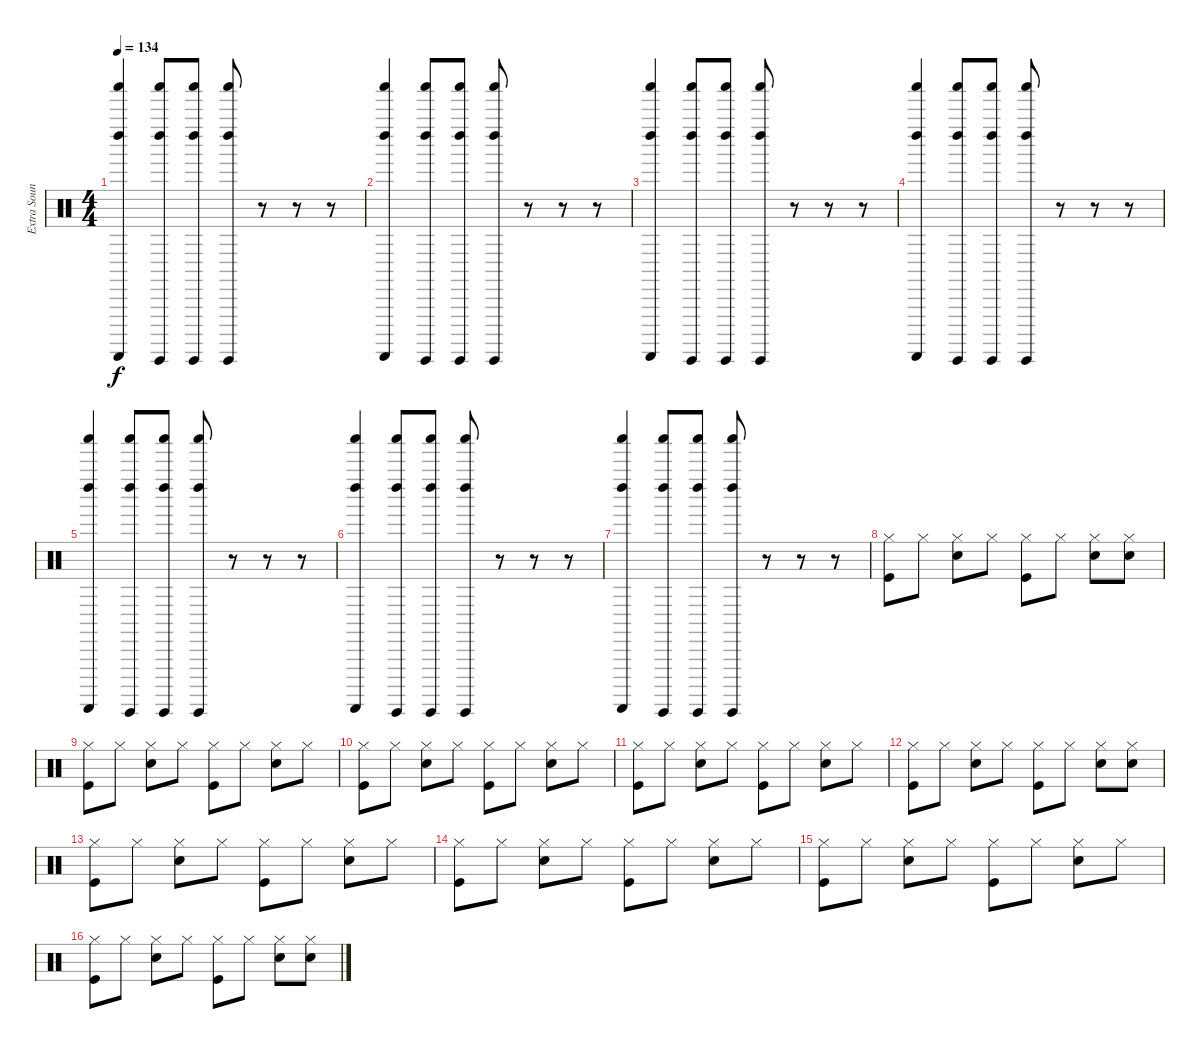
\track ("Extra Sounds" "Extra Soun") {instrument percussion}
\staff {score}
\articulation defaults
\ts (4 4)
\tempo 134
\clef neutral
\ks c
("Shaker (hit)" "Left Maraca (hit)" "Guiro (scrap-return)").4{dy f} ("Shaker (hit)" "Left Maraca (hit)" "Guiro (hit)").8 ("Shaker (hit)" "Left Maraca (hit)" "Guiro (hit)").8 ("Shaker (hit)" "Left Maraca (hit)" "Guiro (hit)").8 r.8 r.8 r.8 |
("Shaker (hit)" "Left Maraca (hit)" "Guiro (scrap-return)").4 ("Shaker (hit)" "Left Maraca (hit)" "Guiro (hit)").8 ("Shaker (hit)" "Left Maraca (hit)" "Guiro (hit)").8 ("Shaker (hit)" "Left Maraca (hit)" "Guiro (hit)").8 r.8 r.8 r.8 |
("Shaker (hit)" "Left Maraca (hit)" "Guiro (scrap-return)").4 ("Shaker (hit)" "Left Maraca (hit)" "Guiro (hit)").8 ("Shaker (hit)" "Left Maraca (hit)" "Guiro (hit)").8 ("Shaker (hit)" "Left Maraca (hit)" "Guiro (hit)").8 r.8 r.8 r.8 |
("Shaker (hit)" "Left Maraca (hit)" "Guiro (scrap-return)").4 ("Shaker (hit)" "Left Maraca (hit)" "Guiro (hit)").8 ("Shaker (hit)" "Left Maraca (hit)" "Guiro (hit)").8 ("Shaker (hit)" "Left Maraca (hit)" "Guiro (hit)").8 r.8 r.8 r.8 |
("Shaker (hit)" "Left Maraca (hit)" "Guiro (scrap-return)").4 ("Shaker (hit)" "Left Maraca (hit)" "Guiro (hit)").8 ("Shaker (hit)" "Left Maraca (hit)" "Guiro (hit)").8 ("Shaker (hit)" "Left Maraca (hit)" "Guiro (hit)").8 r.8 r.8 r.8 |
("Shaker (hit)" "Left Maraca (hit)" "Guiro (scrap-return)").4 ("Shaker (hit)" "Left Maraca (hit)" "Guiro (hit)").8 ("Shaker (hit)" "Left Maraca (hit)" "Guiro (hit)").8 ("Shaker (hit)" "Left Maraca (hit)" "Guiro (hit)").8 r.8 r.8 r.8 |
("Shaker (hit)" "Left Maraca (hit)" "Guiro (scrap-return)").4 ("Shaker (hit)" "Left Maraca (hit)" "Guiro (hit)").8 ("Shaker (hit)" "Left Maraca (hit)" "Guiro (hit)").8 ("Shaker (hit)" "Left Maraca (hit)" "Guiro (hit)").8 r.8 r.8 r.8 |
("Hi-Hat (closed)" "Kick (hit)").8 "Hi-Hat (closed)".8 ("Hi-Hat (closed)" "Snare (hit) 2").8 "Hi-Hat (closed)".8 ("Hi-Hat (closed)" "Kick (hit)").8 "Hi-Hat (closed)".8 ("Hi-Hat (closed)" "Snare (hit) 2").8 ("Hi-Hat (closed)" "Snare (hit) 2").8 |
("Hi-Hat (closed)" "Kick (hit)").8 "Hi-Hat (closed)".8 ("Hi-Hat (closed)" "Snare (hit) 2").8 "Hi-Hat (closed)".8 ("Hi-Hat (closed)" "Kick (hit)").8 "Hi-Hat (closed)".8 ("Hi-Hat (closed)" "Snare (hit) 2").8 "Hi-Hat (closed)".8 |
("Hi-Hat (closed)" "Kick (hit)").8 "Hi-Hat (closed)".8 ("Hi-Hat (closed)" "Snare (hit) 2").8 "Hi-Hat (closed)".8 ("Hi-Hat (closed)" "Kick (hit)").8 "Hi-Hat (closed)".8 ("Hi-Hat (closed)" "Snare (hit) 2").8 "Hi-Hat (closed)".8 |
("Hi-Hat (closed)" "Kick (hit)").8 "Hi-Hat (closed)".8 ("Hi-Hat (closed)" "Snare (hit) 2").8 "Hi-Hat (closed)".8 ("Hi-Hat (closed)" "Kick (hit)").8 "Hi-Hat (closed)".8 ("Hi-Hat (closed)" "Snare (hit) 2").8 "Hi-Hat (closed)".8 |
("Hi-Hat (closed)" "Kick (hit)").8 "Hi-Hat (closed)".8 ("Hi-Hat (closed)" "Snare (hit) 2").8 "Hi-Hat (closed)".8 ("Hi-Hat (closed)" "Kick (hit)").8 "Hi-Hat (closed)".8 ("Hi-Hat (closed)" "Snare (hit) 2").8 ("Hi-Hat (closed)" "Snare (hit) 2").8 |
("Hi-Hat (closed)" "Kick (hit)").8 "Hi-Hat (closed)".8 ("Hi-Hat (closed)" "Snare (hit) 2").8 "Hi-Hat (closed)".8 ("Hi-Hat (closed)" "Kick (hit)").8 "Hi-Hat (closed)".8 ("Hi-Hat (closed)" "Snare (hit) 2").8 "Hi-Hat (closed)".8 |
("Hi-Hat (closed)" "Kick (hit)").8 "Hi-Hat (closed)".8 ("Hi-Hat (closed)" "Snare (hit) 2").8 "Hi-Hat (closed)".8 ("Hi-Hat (closed)" "Kick (hit)").8 "Hi-Hat (closed)".8 ("Hi-Hat (closed)" "Snare (hit) 2").8 "Hi-Hat (closed)".8 |
("Hi-Hat (closed)" "Kick (hit)").8 "Hi-Hat (closed)".8 ("Hi-Hat (closed)" "Snare (hit) 2").8 "Hi-Hat (closed)".8 ("Hi-Hat (closed)" "Kick (hit)").8 "Hi-Hat (closed)".8 ("Hi-Hat (closed)" "Snare (hit) 2").8 "Hi-Hat (closed)".8 |
("Hi-Hat (closed)" "Kick (hit)").8 "Hi-Hat (closed)".8 ("Hi-Hat (closed)" "Snare (hit) 2").8 "Hi-Hat (closed)".8 ("Hi-Hat (closed)" "Kick (hit)").8 "Hi-Hat (closed)".8 ("Hi-Hat (closed)" "Snare (hit) 2").8 ("Hi-Hat (closed)" "Snare (hit) 2").8
